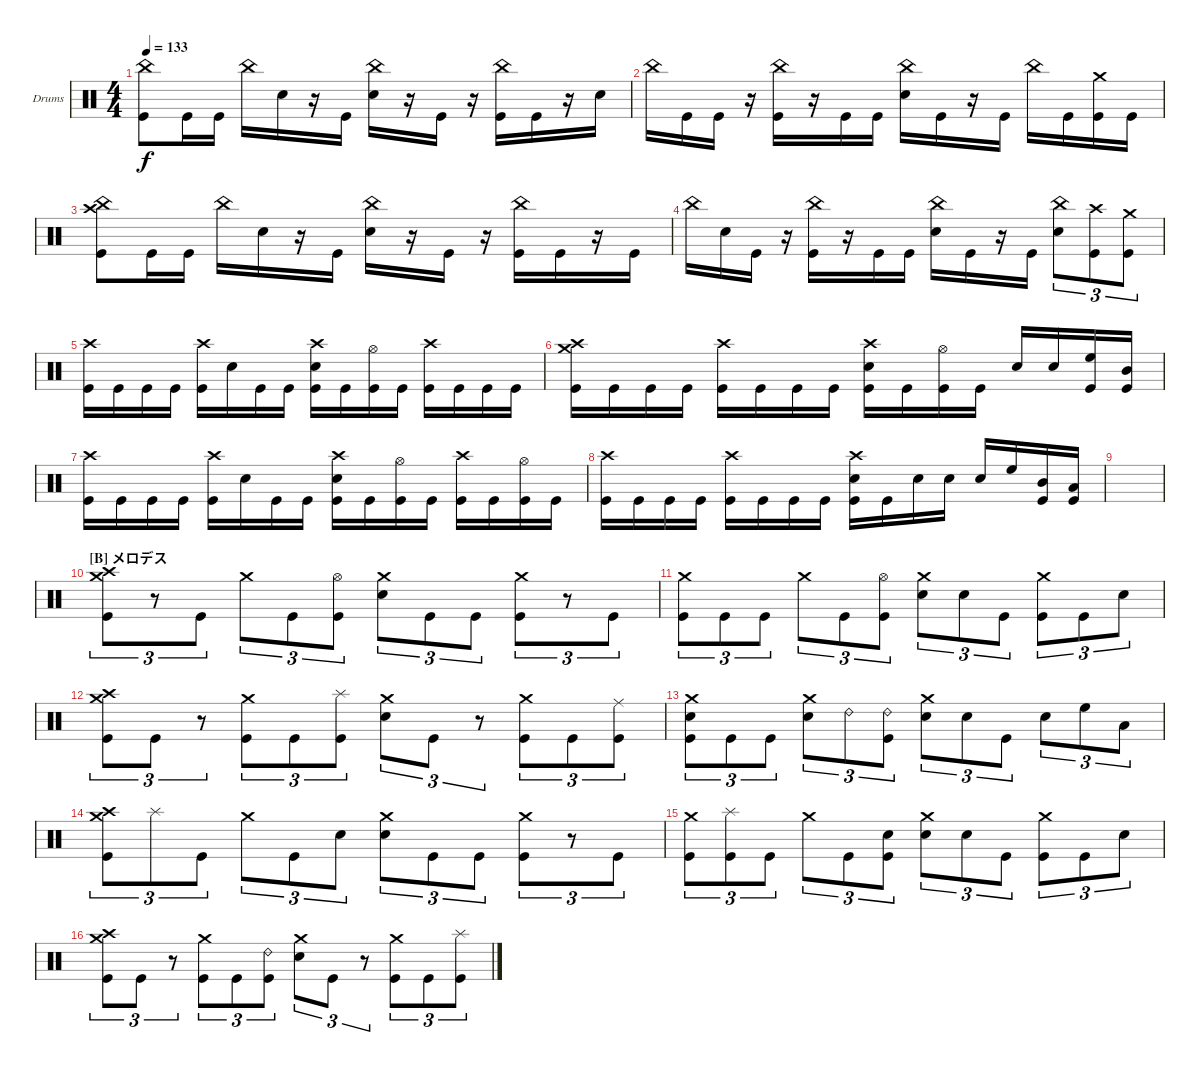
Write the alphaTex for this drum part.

\bracketExtendMode groupsimilarinstruments
\firstSystemTrackNameOrientation horizontal
\otherSystemsTrackNameOrientation horizontal
\track ("Ben Kazenoff" "Drums") {instrument percussion}
\staff {score}
\articulation defaults
\ts (4 4)
\tempo 133
\clef neutral
\ks c
("China (hit)" "Kick (hit)").8{dy f} "Kick (hit)".16 "Kick (hit)".16 "China (hit)".16 "Snare (hit) 2".16 r.16 "Kick (hit)".16 ("China (hit)" "Snare (hit) 2").16 r.16 "Kick (hit)".16 r.16 ("China (hit)" "Kick (hit)").16 "Kick (hit)".16 r.16 "Snare (hit) 2".16 |
"China (hit)".16 "Kick (hit)".16 "Kick (hit)".16 r.16 ("China (hit)" "Kick (hit)").16 r.16 "Kick (hit)".16 "Kick (hit)".16 ("China (hit)" "Snare (hit) 2").16 "Kick (hit)".16 r.16 "Kick (hit)".16 "China (hit)".16 "Kick (hit)".16 ("Kick (hit)" "Crash medium (hit)").16 "Kick (hit)".16 |
("China (hit)" "Crash high (hit)" "Kick (hit)").8 "Kick (hit)".16 "Kick (hit)".16 "China (hit)".16 "Snare (hit) 2".16 r.16 "Kick (hit)".16 ("China (hit)" "Snare (hit) 2").16 r.16 "Kick (hit)".16 r.16 ("China (hit)" "Kick (hit)").16 "Kick (hit)".16 r.16 "Kick (hit)".16 |
"China (hit)".16 "Snare (hit) 2".16 "Kick (hit)".16 r.16 ("China (hit)" "Kick (hit)").16 r.16 "Kick (hit)".16 "Kick (hit)".16 ("China (hit)" "Snare (hit) 2").16 "Kick (hit)".16 r.16 "Kick (hit)".16 ("Snare (hit) 2" "China (hit)").8{tu (3 2)} ("Kick (hit)" "Crash high (hit)").8{tu (3 2)} ("Kick (hit)" "Crash medium (hit)").8{tu (3 2)} |
("Crash high (hit)" "Kick (hit)").16 "Kick (hit)".16 "Kick (hit)".16 "Kick (hit)".16 ("Crash high (hit)" "Kick (hit)").16 "Snare (hit) 2".16 "Kick (hit)".16 "Kick (hit)".16 ("Kick (hit)" "Crash high (hit)" "Snare (hit) 2").16 "Kick (hit)".16 ("Hi-Hat (open)" "Kick (hit)").16 "Kick (hit)".16 ("Crash high (hit)" "Kick (hit)").16 "Kick (hit)".16 "Kick (hit)".16 "Kick (hit)".16 |
("Crash high (hit)" "Kick (hit)" "Crash medium (hit)").16 "Kick (hit)".16 "Kick (hit)".16 "Kick (hit)".16 ("Crash high (hit)" "Kick (hit)").16 "Kick (hit)".16 "Kick (hit)".16 "Kick (hit)".16 ("Crash high (hit)" "Snare (hit) 2" "Kick (hit)").16 "Kick (hit)".16 ("Hi-Hat (open)" "Kick (hit)").16 "Kick (hit)".16 "Snare (hit) 2".16 "Snare (hit) 2".16 ("High Floor Tom (hit)" "Kick (hit)").16 ("Mid Tom (hit)" "Kick (hit)").16 |
("Crash high (hit)" "Kick (hit)").16 "Kick (hit)".16 "Kick (hit)".16 "Kick (hit)".16 ("Crash high (hit)" "Kick (hit)").16 "Snare (hit) 2".16 "Kick (hit)".16 "Kick (hit)".16 ("Kick (hit)" "Crash high (hit)" "Snare (hit) 2").16 "Kick (hit)".16 ("Hi-Hat (open)" "Kick (hit)").16 "Kick (hit)".16 ("Crash high (hit)" "Kick (hit)").16 "Kick (hit)".16 ("Kick (hit)" "Hi-Hat (open)").16 "Kick (hit)".16 |
("Crash high (hit)" "Kick (hit)").16 "Kick (hit)".16 "Kick (hit)".16 "Kick (hit)".16 ("Crash high (hit)" "Kick (hit)").16 "Kick (hit)".16 "Kick (hit)".16 "Kick (hit)".16 ("Crash high (hit)" "Snare (hit) 2" "Kick (hit)").16 "Kick (hit)".16 "Snare (hit) 2".16 "Snare (hit) 2".16 "Snare (hit) 2".16 "High Floor Tom (hit)".16 ("Mid Tom (hit)" "Kick (hit)").16 ("Low Tom (hit)" "Kick (hit)").16 |
|
\section ("B" "メロデス")
("Crash high (hit)" "Crash medium (hit)" "Kick (hit)").8{tu (3 2)} r.8{tu (3 2)} "Kick (hit)".8{tu (3 2)} "Crash medium (hit)".8{tu (3 2)} "Kick (hit)".8{tu (3 2)} ("Hi-Hat (open)" "Kick (hit)").8{tu (3 2)} ("Crash medium (hit)" "Snare (hit) 2").8{tu (3 2)} "Kick (hit)".8{tu (3 2)} "Kick (hit)".8{tu (3 2)} ("Crash medium (hit)" "Kick (hit)").8{tu (3 2)} r.8{tu (3 2)} "Kick (hit)".8{tu (3 2)} |
("Kick (hit)" "Crash medium (hit)").8{tu (3 2)} "Kick (hit)".8{tu (3 2)} "Kick (hit)".8{tu (3 2)} "Crash medium (hit)".8{tu (3 2)} "Kick (hit)".8{tu (3 2)} ("Hi-Hat (open)" "Kick (hit)").8{tu (3 2)} ("Crash medium (hit)" "Snare (hit) 2").8{tu (3 2)} "Snare (hit) 2".8{tu (3 2)} "Kick (hit)".8{tu (3 2)} ("Crash medium (hit)" "Kick (hit)").8{tu (3 2)} "Kick (hit)".8{tu (3 2)} "Snare (hit) 2".8{tu (3 2)} |
("Crash high (hit)" "Crash medium (hit)" "Kick (hit)").8{tu (3 2)} "Kick (hit)".8{tu (3 2)} r.8{tu (3 2)} ("Crash medium (hit)" "Kick (hit)").8{tu (3 2)} "Kick (hit)".8{tu (3 2)} ("Splash (hit)" "Kick (hit)").8{tu (3 2)} ("Crash medium (hit)" "Snare (hit) 2").8{tu (3 2)} "Kick (hit)".8{tu (3 2)} r.8{tu (3 2)} ("Crash medium (hit)" "Kick (hit)").8{tu (3 2)} "Kick (hit)".8{tu (3 2)} ("Ride (middle)" "Kick (hit)").8{tu (3 2)} |
("Kick (hit)" "Crash medium (hit)" "Snare (hit) 2").8{tu (3 2)} "Kick (hit)".8{tu (3 2)} "Kick (hit)".8{tu (3 2)} ("Crash medium (hit)" "Snare (hit) 2").8{tu (3 2)} "Ride (bell) 2".8{tu (3 2)} ("Ride (bell) 2" "Kick (hit)").8{tu (3 2)} ("Crash medium (hit)" "Snare (hit) 2").8{tu (3 2)} "Snare (hit) 2".8{tu (3 2)} "Kick (hit)".8{tu (3 2)} "Snare (hit) 2".8{tu (3 2)} "High Floor Tom (hit)".8{tu (3 2)} "Low Tom (hit)".8{tu (3 2)} |
("Crash high (hit)" "Crash medium (hit)" "Kick (hit)").8{tu (3 2)} "Splash (hit)".8{tu (3 2)} "Kick (hit)".8{tu (3 2)} "Crash medium (hit)".8{tu (3 2)} "Kick (hit)".8{tu (3 2)} "Snare (hit) 2".8{tu (3 2)} ("Crash medium (hit)" "Snare (hit) 2").8{tu (3 2)} "Kick (hit)".8{tu (3 2)} "Kick (hit)".8{tu (3 2)} ("Crash medium (hit)" "Kick (hit)").8{tu (3 2)} r.8{tu (3 2)} "Kick (hit)".8{tu (3 2)} |
("Kick (hit)" "Crash medium (hit)").8{tu (3 2)} ("Kick (hit)" "Splash (hit)").8{tu (3 2)} "Kick (hit)".8{tu (3 2)} "Crash medium (hit)".8{tu (3 2)} "Kick (hit)".8{tu (3 2)} ("Snare (hit) 2" "Kick (hit)").8{tu (3 2)} ("Crash medium (hit)" "Snare (hit) 2").8{tu (3 2)} "Snare (hit) 2".8{tu (3 2)} "Kick (hit)".8{tu (3 2)} ("Crash medium (hit)" "Kick (hit)").8{tu (3 2)} "Kick (hit)".8{tu (3 2)} "Snare (hit) 2".8{tu (3 2)} |
("Crash high (hit)" "Crash medium (hit)" "Kick (hit)").8{tu (3 2)} "Kick (hit)".8{tu (3 2)} r.8{tu (3 2)} ("Crash medium (hit)" "Kick (hit)").8{tu (3 2)} "Kick (hit)".8{tu (3 2)} ("Ride (bell) 2" "Kick (hit)").8{tu (3 2)} ("Crash medium (hit)" "Snare (hit) 2").8{tu (3 2)} "Kick (hit)".8{tu (3 2)} r.8{tu (3 2)} ("Crash medium (hit)" "Kick (hit)").8{tu (3 2)} "Kick (hit)".8{tu (3 2)} ("Splash (hit)" "Kick (hit)").8{tu (3 2)}
